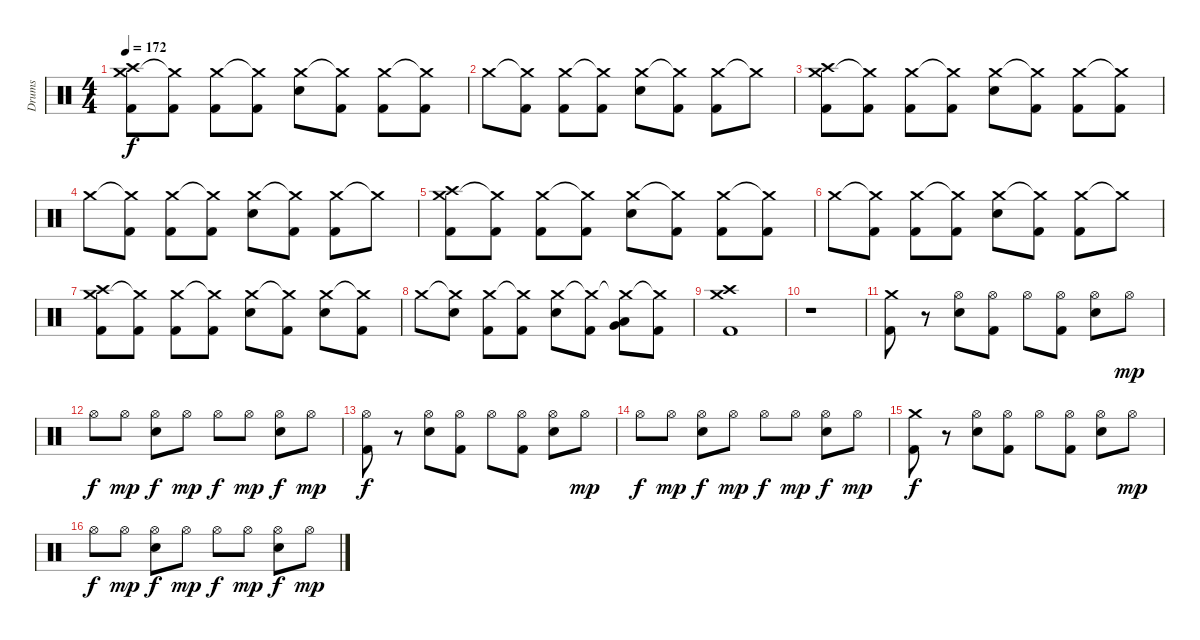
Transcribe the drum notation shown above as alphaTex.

\track ("Drums" "Drums") {instrument percussion}
\staff {score}
\articulation defaults
\ts (4 4)
\tempo 172
\clef neutral
\ks c
("Crash medium (hit)" "Crash high (hit)" "Kick (hit) 2").8{dy f} ("Crash medium (hit)"{t} "Kick (hit) 2").8 ("Crash medium (hit)" "Kick (hit) 2").8 ("Crash medium (hit)"{t} "Kick (hit) 2").8 ("Crash medium (hit)" "Electric Snare (hit)").8 ("Crash medium (hit)"{t} "Kick (hit) 2").8 ("Crash medium (hit)" "Kick (hit) 2").8 ("Crash medium (hit)"{t} "Kick (hit) 2").8 |
"Crash medium (hit)".8 ("Crash medium (hit)"{t} "Kick (hit) 2").8 ("Crash medium (hit)" "Kick (hit) 2").8 ("Crash medium (hit)"{t} "Kick (hit) 2").8 ("Crash medium (hit)" "Electric Snare (hit)").8 ("Crash medium (hit)"{t} "Kick (hit) 2").8 ("Crash medium (hit)" "Kick (hit) 2").8 "Crash medium (hit)"{t}.8 |
("Crash medium (hit)" "Crash high (hit)" "Kick (hit) 2").8 ("Crash medium (hit)"{t} "Kick (hit) 2").8 ("Crash medium (hit)" "Kick (hit) 2").8 ("Crash medium (hit)"{t} "Kick (hit) 2").8 ("Crash medium (hit)" "Electric Snare (hit)").8 ("Crash medium (hit)"{t} "Kick (hit) 2").8 ("Crash medium (hit)" "Kick (hit) 2").8 ("Crash medium (hit)"{t} "Kick (hit) 2").8 |
"Crash medium (hit)".8 ("Crash medium (hit)"{t} "Kick (hit) 2").8 ("Crash medium (hit)" "Kick (hit) 2").8 ("Crash medium (hit)"{t} "Kick (hit) 2").8 ("Crash medium (hit)" "Electric Snare (hit)").8 ("Crash medium (hit)"{t} "Kick (hit) 2").8 ("Crash medium (hit)" "Kick (hit) 2").8 "Crash medium (hit)"{t}.8 |
("Crash medium (hit)" "Crash high (hit)" "Kick (hit) 2").8 ("Crash medium (hit)"{t} "Kick (hit) 2").8 ("Crash medium (hit)" "Kick (hit) 2").8 ("Crash medium (hit)"{t} "Kick (hit) 2").8 ("Crash medium (hit)" "Electric Snare (hit)").8 ("Crash medium (hit)"{t} "Kick (hit) 2").8 ("Crash medium (hit)" "Kick (hit) 2").8 ("Crash medium (hit)"{t} "Kick (hit) 2").8 |
"Crash medium (hit)".8 ("Crash medium (hit)"{t} "Kick (hit) 2").8 ("Crash medium (hit)" "Kick (hit) 2").8 ("Crash medium (hit)"{t} "Kick (hit) 2").8 ("Crash medium (hit)" "Electric Snare (hit)").8 ("Crash medium (hit)"{t} "Kick (hit) 2").8 ("Crash medium (hit)" "Kick (hit) 2").8 "Crash medium (hit)"{t}.8 |
("Crash medium (hit)" "Crash high (hit)" "Kick (hit) 2").8 ("Crash medium (hit)"{t} "Kick (hit) 2").8 ("Crash medium (hit)" "Kick (hit) 2").8 ("Crash medium (hit)"{t} "Kick (hit) 2").8 ("Crash medium (hit)" "Electric Snare (hit)").8 ("Crash medium (hit)"{t} "Kick (hit) 2").8 ("Crash medium (hit)" "Electric Snare (hit)").8 ("Crash medium (hit)"{t} "Kick (hit) 2").8 |
"Crash medium (hit)".8 ("Crash medium (hit)"{t} "Electric Snare (hit)").8 ("Crash medium (hit)" "Kick (hit) 2").8 ("Crash medium (hit)"{t} "Kick (hit) 2").8 ("Crash medium (hit)" "Electric Snare (hit)").8 ("Crash medium (hit)"{t} "Kick (hit) 2").8 ("Crash medium (hit)"{t} "Low Floor Tom (hit)" "Very Low Tom (hit)").8 ("Crash medium (hit)"{t} "Kick (hit) 2").8 |
("Crash medium (hit)" "Crash high (hit)" "Kick (hit) 2").1 |
r.1 |
("Crash medium (hit)" "Kick (hit) 2").8 r.8 ("Hi-Hat (open)" "Electric Snare (hit)").8 ("Hi-Hat (open)" "Kick (hit) 2").8 "Hi-Hat (open)".8 ("Hi-Hat (open)" "Kick (hit) 2").8 ("Hi-Hat (open)" "Electric Snare (hit)").8 "Hi-Hat (open)".8{dy mp} |
"Hi-Hat (open)".8{dy f} "Hi-Hat (open)".8{dy mp} ("Hi-Hat (open)" "Electric Snare (hit)").8{dy f} "Hi-Hat (open)".8{dy mp} "Hi-Hat (open)".8{dy f} "Hi-Hat (open)".8{dy mp} ("Hi-Hat (open)" "Electric Snare (hit)").8{dy f} "Hi-Hat (open)".8{dy mp} |
("Hi-Hat (open)" "Kick (hit) 2").8{dy f} r.8 ("Hi-Hat (open)" "Electric Snare (hit)").8 ("Hi-Hat (open)" "Kick (hit) 2").8 "Hi-Hat (open)".8 ("Hi-Hat (open)" "Kick (hit) 2").8 ("Hi-Hat (open)" "Electric Snare (hit)").8 "Hi-Hat (open)".8{dy mp} |
"Hi-Hat (open)".8{dy f} "Hi-Hat (open)".8{dy mp} ("Hi-Hat (open)" "Electric Snare (hit)").8{dy f} "Hi-Hat (open)".8{dy mp} "Hi-Hat (open)".8{dy f} "Hi-Hat (open)".8{dy mp} ("Hi-Hat (open)" "Electric Snare (hit)").8{dy f} "Hi-Hat (open)".8{dy mp} |
("Crash medium (hit)" "Kick (hit) 2").8{dy f} r.8 ("Hi-Hat (open)" "Electric Snare (hit)").8 ("Hi-Hat (open)" "Kick (hit) 2").8 "Hi-Hat (open)".8 ("Hi-Hat (open)" "Kick (hit) 2").8 ("Hi-Hat (open)" "Electric Snare (hit)").8 "Hi-Hat (open)".8{dy mp} |
"Hi-Hat (open)".8{dy f} "Hi-Hat (open)".8{dy mp} ("Hi-Hat (open)" "Electric Snare (hit)").8{dy f} "Hi-Hat (open)".8{dy mp} "Hi-Hat (open)".8{dy f} "Hi-Hat (open)".8{dy mp} ("Hi-Hat (open)" "Electric Snare (hit)").8{dy f} "Hi-Hat (open)".8{dy mp}
